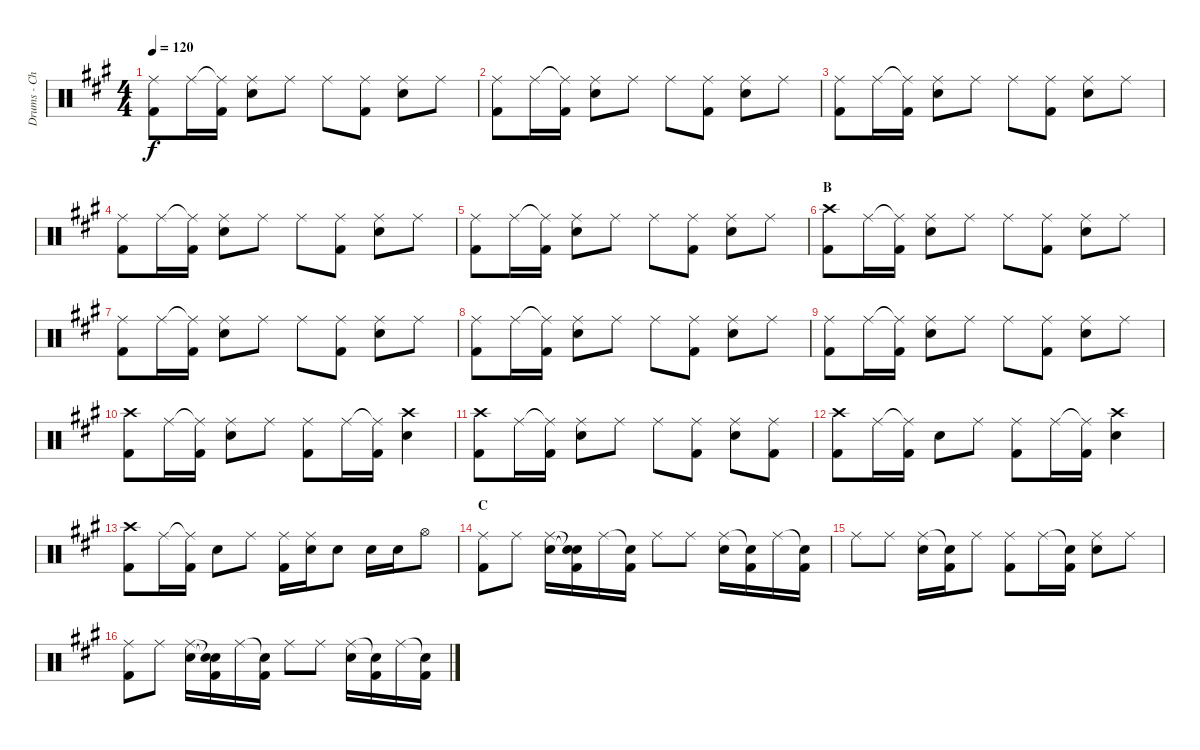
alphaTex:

\track ("Drums - Chad S" "Drums - Ch") {instrument percussion}
\staff {score}
\articulation defaults
\ts (4 4)
\tempo 120
\clef neutral
\ks f#minor
("Ride (middle)" "Kick (hit) 2").8{dy f} "Ride (middle)".16 ("Ride (middle)"{t} "Kick (hit) 2").16 ("Ride (middle)" "Snare (hit) 2").8 "Ride (middle)".8 "Ride (middle)".8 ("Ride (middle)" "Kick (hit) 2").8 ("Ride (middle)" "Snare (hit) 2").8 "Ride (middle)".8 |
("Ride (middle)" "Kick (hit) 2").8 "Ride (middle)".16 ("Ride (middle)"{t} "Kick (hit) 2").16 ("Ride (middle)" "Snare (hit) 2").8 "Ride (middle)".8 "Ride (middle)".8 ("Ride (middle)" "Kick (hit) 2").8 ("Ride (middle)" "Snare (hit) 2").8 "Ride (middle)".8 |
("Ride (middle)" "Kick (hit) 2").8 "Ride (middle)".16 ("Ride (middle)"{t} "Kick (hit) 2").16 ("Ride (middle)" "Snare (hit) 2").8 "Ride (middle)".8 "Ride (middle)".8 ("Ride (middle)" "Kick (hit) 2").8 ("Ride (middle)" "Snare (hit) 2").8 "Ride (middle)".8 |
("Ride (middle)" "Kick (hit) 2").8 "Ride (middle)".16 ("Ride (middle)"{t} "Kick (hit) 2").16 ("Ride (middle)" "Snare (hit) 2").8 "Ride (middle)".8 "Ride (middle)".8 ("Ride (middle)" "Kick (hit) 2").8 ("Ride (middle)" "Snare (hit) 2").8 "Ride (middle)".8 |
("Ride (middle)" "Kick (hit) 2").8 "Ride (middle)".16 ("Ride (middle)"{t} "Kick (hit) 2").16 ("Ride (middle)" "Snare (hit) 2").8 "Ride (middle)".8 "Ride (middle)".8 ("Ride (middle)" "Kick (hit) 2").8 ("Ride (middle)" "Snare (hit) 2").8 "Ride (middle)".8 |
\section ("" "B")
("Crash high (hit)" "Kick (hit) 2").8 "Ride (middle)".16 ("Ride (middle)"{t} "Kick (hit) 2").16 ("Ride (middle)" "Snare (hit) 2").8 "Ride (middle)".8 "Ride (middle)".8 ("Ride (middle)" "Kick (hit) 2").8 ("Ride (middle)" "Snare (hit) 2").8 "Ride (middle)".8 |
("Ride (middle)" "Kick (hit) 2").8 "Ride (middle)".16 ("Ride (middle)"{t} "Kick (hit) 2").16 ("Ride (middle)" "Snare (hit) 2").8 "Ride (middle)".8 "Ride (middle)".8 ("Ride (middle)" "Kick (hit) 2").8 ("Ride (middle)" "Snare (hit) 2").8 "Ride (middle)".8 |
("Ride (middle)" "Kick (hit) 2").8 "Ride (middle)".16 ("Ride (middle)"{t} "Kick (hit) 2").16 ("Ride (middle)" "Snare (hit) 2").8 "Ride (middle)".8 "Ride (middle)".8 ("Ride (middle)" "Kick (hit) 2").8 ("Ride (middle)" "Snare (hit) 2").8 "Ride (middle)".8 |
("Ride (middle)" "Kick (hit) 2").8 "Ride (middle)".16 ("Ride (middle)"{t} "Kick (hit) 2").16 ("Ride (middle)" "Snare (hit) 2").8 "Ride (middle)".8 "Ride (middle)".8 ("Ride (middle)" "Kick (hit) 2").8 ("Ride (middle)" "Snare (hit) 2").8 "Ride (middle)".8 |
("Crash high (hit)" "Kick (hit) 2").8 "Ride (middle)".16 ("Ride (middle)"{t} "Kick (hit) 2").16 ("Ride (middle)" "Snare (hit) 2").8 "Ride (middle)".8 ("Ride (middle)" "Kick (hit) 2").8 "Ride (middle)".16 ("Ride (middle)"{t} "Kick (hit) 2").16 ("Crash high (hit)" "Snare (hit) 2").4 |
("Crash high (hit)" "Kick (hit) 2").8 "Ride (middle)".16 ("Ride (middle)"{t} "Kick (hit) 2").16 ("Ride (middle)" "Snare (hit) 2").8 "Ride (middle)".8 "Ride (middle)".8 ("Ride (middle)" "Kick (hit) 2").8 ("Ride (middle)" "Snare (hit) 2").8 ("Ride (middle)" "Kick (hit) 2").8 |
("Crash high (hit)" "Kick (hit) 2").8 "Ride (middle)".16 ("Ride (middle)"{t} "Kick (hit) 2").16 "Snare (hit) 2".8 "Ride (middle)".8 ("Ride (middle)" "Kick (hit) 2").8 "Ride (middle)".16 ("Ride (middle)"{t} "Kick (hit) 2").16 ("Crash high (hit)" "Snare (hit) 2").4 |
("Crash high (hit)" "Kick (hit) 2").8 "Ride (middle)".16 ("Ride (middle)"{t} "Kick (hit) 2").16 "Snare (hit) 2".8 "Ride (middle)".8 ("Ride (middle)" "Kick (hit) 2").16 ("Ride (middle)" "Snare (hit) 2").16 "Snare (hit) 2".8 "Snare (hit) 2".16 "Snare (hit) 2".16 "Hi-Hat (open)".8 |
\section ("" "C")
("Ride (middle)" "Kick (hit) 2").8 "Ride (middle)".8 ("Ride (middle)" "Snare (hit) 2").16 ("Snare (hit)"{t} "Snare (hit)"{t} "Kick (hit) 2").16 "Ride (middle)".16 ("Snare (hit)"{t} "Kick (hit) 2").16 "Ride (middle)".8 "Ride (middle)".8 ("Ride (middle)" "Snare (hit) 2").16 ("Snare (hit)"{t} "Kick (hit) 2").16 "Ride (middle)".16 ("Snare (hit)"{t} "Kick (hit) 2").16 |
"Ride (middle)".8 "Ride (middle)".8 ("Ride (middle)" "Snare (hit) 2").16 ("Snare (hit)"{t} "Kick (hit) 2").16 "Ride (middle)".8 ("Ride (middle)" "Kick (hit) 2").8 "Ride (middle)".16 ("Snare (hit)"{t} "Kick (hit) 2").16 ("Ride (middle)" "Snare (hit) 2").8 "Ride (middle)".8 |
("Ride (middle)" "Kick (hit) 2").8 "Ride (middle)".8 ("Ride (middle)" "Snare (hit) 2").16 ("Snare (hit)"{t} "Snare (hit)"{t} "Kick (hit) 2").16 "Ride (middle)".16 ("Snare (hit)"{t} "Kick (hit) 2").16 "Ride (middle)".8 "Ride (middle)".8 ("Ride (middle)" "Snare (hit) 2").16 ("Snare (hit)"{t} "Kick (hit) 2").16 "Ride (middle)".16 ("Snare (hit)"{t} "Kick (hit) 2").16
